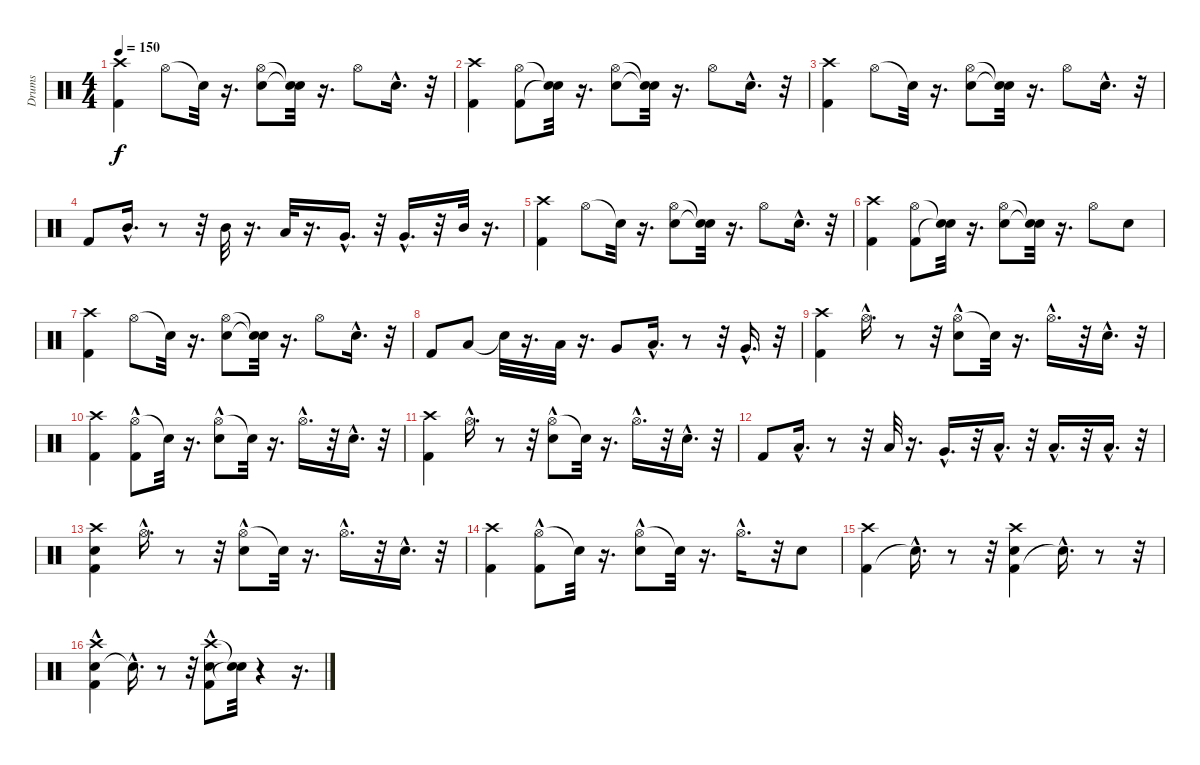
\track ("Drums" "Drums") {instrument percussion}
\staff {score}
\articulation defaults
\ts (4 4)
\tempo 150
\clef neutral
\ks c
("Crash high (hit)" "Kick (hit) 2").4{dy f} "Hi-Hat (open)".8 "Snare (hit)"{t}.32 r.16{d} ("Hi-Hat (open)" "Snare (hit) 2").8 ("Snare (hit)"{t} "Snare (hit)"{t}).32 r.16{d} "Hi-Hat (open)".8 "Snare (hit) 2"{hac}.16{d} r.32 |
("Crash high (hit)" "Kick (hit) 2").4 ("Hi-Hat (open)" "Kick (hit) 2").8 ("Snare (hit)"{t} "Snare (hit)"{t}).32 r.16{d} ("Hi-Hat (open)" "Snare (hit) 2").8 ("Snare (hit)"{t} "Snare (hit)"{t}).32 r.16{d} "Hi-Hat (open)".8 "Snare (hit) 2"{hac}.16{d} r.32 |
("Crash high (hit)" "Kick (hit) 2").4 "Hi-Hat (open)".8 "Snare (hit)"{t}.32 r.16{d} ("Hi-Hat (open)" "Snare (hit) 2").8 ("Snare (hit)"{t} "Snare (hit)"{t}).32 r.16{d} "Hi-Hat (open)".8 "Snare (hit) 2"{hac}.16{d} r.32 |
"Kick (hit) 2".8 "Mid Tom (hit)"{hac}.16{d} r.8 r.32 "Mid Tom (hit)".32 r.16{d} "Low Tom (hit)".32 r.16{d} "Very Low Tom (hit)"{hac}.16{d} r.32 "Very Low Tom (hit)"{hac}.16{d} r.32 "Mid Tom (hit)".32 r.16{d} |
("Crash high (hit)" "Kick (hit) 2").4 "Hi-Hat (open)".8 "Snare (hit)"{t}.32 r.16{d} ("Hi-Hat (open)" "Snare (hit) 2").8 ("Snare (hit)"{t} "Snare (hit)"{t}).32 r.16{d} "Hi-Hat (open)".8 "Snare (hit) 2"{hac}.16{d} r.32 |
("Kick (hit) 2" "Crash high (hit)").4 ("Hi-Hat (open)" "Kick (hit) 2").8 ("Snare (hit)"{t} "Snare (hit)"{t}).32 r.16{d} ("Hi-Hat (open)" "Snare (hit) 2").8 ("Snare (hit)"{t} "Snare (hit)"{t}).32 r.16{d} "Hi-Hat (open)".8 "Snare (hit) 2".8 |
("Kick (hit) 2" "Crash high (hit)").4 "Hi-Hat (open)".8 "Snare (hit)"{t}.32 r.16{d} ("Hi-Hat (open)" "Snare (hit) 2").8 ("Snare (hit)"{t} "Snare (hit)"{t}).32 r.16{d} "Hi-Hat (open)".8 "Snare (hit) 2"{hac}.16{d} r.32 |
"Kick (hit) 2".8 "Low Tom (hit)".8 "Snare (hit)"{t}.32 r.16{d} "Low Tom (hit)".32 r.16{d} "Very Low Tom (hit)".8 "Low Tom (hit)"{hac}.16{d} r.8 r.32 "Very Low Tom (hit)"{hac}.16{d} r.32 |
("Crash high (hit)" "Kick (hit) 2").4 "Hi-Hat (open)"{hac}.16{d} r.8 r.32 ("Hi-Hat (open)"{hac} "Snare (hit) 2").8 "Snare (hit)"{t}.32 r.16{d} "Hi-Hat (open)"{hac}.16{d} r.32 "Snare (hit) 2"{hac}.16{d} r.32 |
("Kick (hit) 2" "Crash high (hit)").4 ("Hi-Hat (open)"{hac} "Kick (hit) 2").8 "Snare (hit)"{t}.32 r.16{d} ("Hi-Hat (open)"{hac} "Snare (hit) 2").8 "Snare (hit)"{t}.32 r.16{d} "Hi-Hat (open)"{hac}.16{d} r.32 "Snare (hit) 2"{hac}.16{d} r.32 |
("Crash high (hit)" "Kick (hit) 2").4 "Hi-Hat (open)"{hac}.16{d} r.8 r.32 ("Hi-Hat (open)"{hac} "Snare (hit) 2").8 "Snare (hit)"{t}.32 r.16{d} "Hi-Hat (open)"{hac}.16{d} r.32 "Snare (hit) 2"{hac}.16{d} r.32 |
"Kick (hit) 2".8 "Low Tom (hit)"{hac}.16{d} r.8 r.32 "Low Tom (hit)".32 r.16{d} "Very Low Tom (hit)"{hac}.16{d} r.32 "Low Floor Tom (hit)"{hac}.16{d} r.32 "Low Floor Tom (hit)"{hac}.16{d} r.32 "Low Tom (hit)"{hac}.16{d} r.32 |
("Snare (hit) 2" "Crash high (hit)" "Kick (hit) 2").4 "Hi-Hat (open)"{hac}.16{d} r.8 r.32 ("Hi-Hat (open)"{hac} "Snare (hit) 2").8 "Snare (hit)"{t}.32 r.16{d} "Hi-Hat (open)"{hac}.16{d} r.32 "Snare (hit) 2"{hac}.16{d} r.32 |
("Kick (hit) 2" "Crash high (hit)").4 ("Hi-Hat (open)"{hac} "Kick (hit) 2").8 "Snare (hit)"{t}.32 r.16{d} ("Hi-Hat (open)"{hac} "Snare (hit) 2").8 "Snare (hit)"{t}.32 r.16{d} "Hi-Hat (open)"{hac}.16{d} r.32 "Snare (hit) 2".8 |
("Kick (hit) 2" "Crash high (hit)").4 "Snare (hit)"{hac t}.16{d} r.8 r.32 ("Kick (hit) 2" "Snare (hit) 2" "Crash high (hit)").4 "Snare (hit)"{hac t}.16{d} r.8 r.32 |
("Snare (hit) 2"{hac} "Crash high (hit)" "Kick (hit) 2").4 "Snare (hit)"{hac t}.16{d} r.8 r.32 ("Kick (hit) 2" "Crash high (hit)"{hac} "Snare (hit) 2").8 ("Snare (hit)"{t} "Snare (hit)"{t}).32 r.4 r.16{d}
